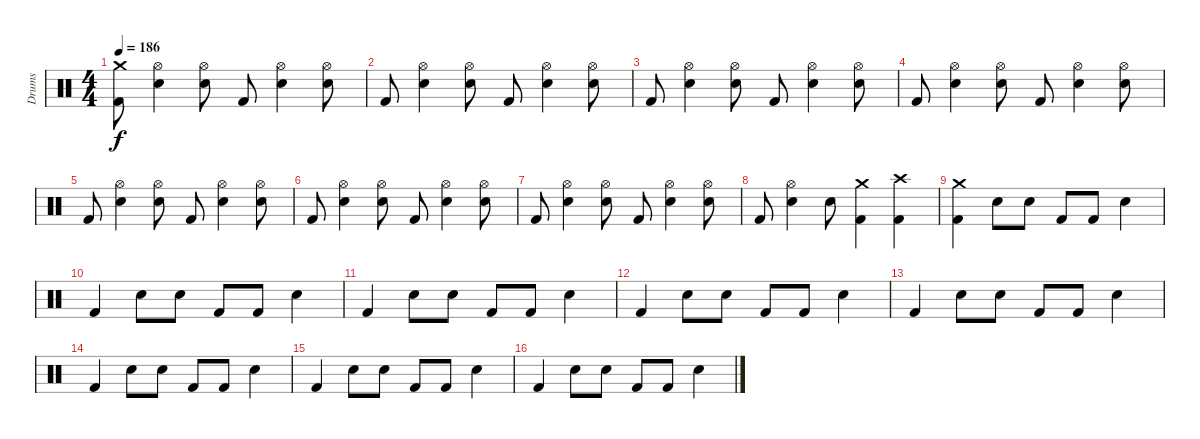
\track ("Drums" "Drums") {instrument percussion}
\staff
\articulation defaults
\ts (4 4)
\tempo 186
\clef neutral
\ks c
("Crash medium (hit)" "Kick (hit) 2").8{dy f} ("Hi-Hat (open)" "Electric Snare (hit)").4 ("Hi-Hat (open)" "Electric Snare (hit)").8 "Kick (hit) 2".8 ("Hi-Hat (open)" "Electric Snare (hit)").4 ("Hi-Hat (open)" "Electric Snare (hit)").8 |
"Kick (hit) 2".8 ("Hi-Hat (open)" "Electric Snare (hit)").4 ("Hi-Hat (open)" "Electric Snare (hit)").8 "Kick (hit) 2".8 ("Hi-Hat (open)" "Electric Snare (hit)").4 ("Hi-Hat (open)" "Electric Snare (hit)").8 |
"Kick (hit) 2".8 ("Hi-Hat (open)" "Electric Snare (hit)").4 ("Hi-Hat (open)" "Electric Snare (hit)").8 "Kick (hit) 2".8 ("Hi-Hat (open)" "Electric Snare (hit)").4 ("Hi-Hat (open)" "Electric Snare (hit)").8 |
"Kick (hit) 2".8 ("Hi-Hat (open)" "Electric Snare (hit)").4 ("Hi-Hat (open)" "Electric Snare (hit)").8 "Kick (hit) 2".8 ("Hi-Hat (open)" "Electric Snare (hit)").4 ("Hi-Hat (open)" "Electric Snare (hit)").8 |
"Kick (hit) 2".8 ("Hi-Hat (open)" "Electric Snare (hit)").4 ("Hi-Hat (open)" "Electric Snare (hit)").8 "Kick (hit) 2".8 ("Hi-Hat (open)" "Electric Snare (hit)").4 ("Hi-Hat (open)" "Electric Snare (hit)").8 |
"Kick (hit) 2".8 ("Hi-Hat (open)" "Electric Snare (hit)").4 ("Hi-Hat (open)" "Electric Snare (hit)").8 "Kick (hit) 2".8 ("Hi-Hat (open)" "Electric Snare (hit)").4 ("Hi-Hat (open)" "Electric Snare (hit)").8 |
"Kick (hit) 2".8 ("Hi-Hat (open)" "Electric Snare (hit)").4 ("Hi-Hat (open)" "Electric Snare (hit)").8 "Kick (hit) 2".8 ("Hi-Hat (open)" "Electric Snare (hit)").4 ("Hi-Hat (open)" "Electric Snare (hit)").8 |
"Kick (hit) 2".8 ("Hi-Hat (open)" "Electric Snare (hit)").4 "Electric Snare (hit)".8 ("Crash medium (hit)" "Kick (hit) 2").4 ("Crash high (hit)" "Kick (hit) 2").4 |
("Crash medium (hit)" "Kick (hit) 2").4 "Electric Snare (hit)".8 "Electric Snare (hit)".8 "Kick (hit) 2".8 "Kick (hit) 2".8 "Electric Snare (hit)".4 |
"Kick (hit) 2".4 "Electric Snare (hit)".8 "Electric Snare (hit)".8 "Kick (hit) 2".8 "Kick (hit) 2".8 "Electric Snare (hit)".4 |
"Kick (hit) 2".4 "Electric Snare (hit)".8 "Electric Snare (hit)".8 "Kick (hit) 2".8 "Kick (hit) 2".8 "Electric Snare (hit)".4 |
"Kick (hit) 2".4 "Electric Snare (hit)".8 "Electric Snare (hit)".8 "Kick (hit) 2".8 "Kick (hit) 2".8 "Electric Snare (hit)".4 |
"Kick (hit) 2".4 "Electric Snare (hit)".8 "Electric Snare (hit)".8 "Kick (hit) 2".8 "Kick (hit) 2".8 "Electric Snare (hit)".4 |
"Kick (hit) 2".4 "Electric Snare (hit)".8 "Electric Snare (hit)".8 "Kick (hit) 2".8 "Kick (hit) 2".8 "Electric Snare (hit)".4 |
"Kick (hit) 2".4 "Electric Snare (hit)".8 "Electric Snare (hit)".8 "Kick (hit) 2".8 "Kick (hit) 2".8 "Electric Snare (hit)".4 |
"Kick (hit) 2".4 "Electric Snare (hit)".8 "Electric Snare (hit)".8 "Kick (hit) 2".8 "Kick (hit) 2".8 "Electric Snare (hit)".4
